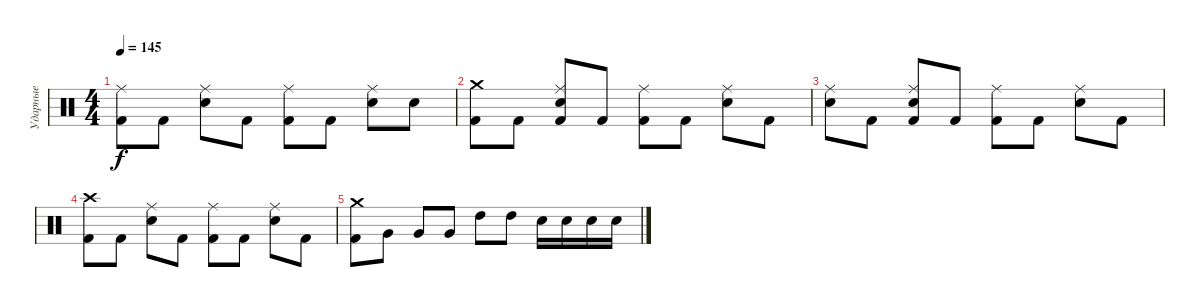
\track ("Ударные" "Ударные") {instrument percussion}
\staff {score}
\articulation defaults
\ts (4 4)
\tempo 145
\clef neutral
\ks c
("Kick (hit) 2" "Ride (middle)").8{dy f} "Kick (hit) 2".8 ("Ride (middle)" "Electric Snare (hit)").8 "Kick (hit) 2".8 ("Kick (hit) 2" "Ride (middle)").8 "Kick (hit) 2".8 ("Electric Snare (hit)" "Ride (middle)").8 "Electric Snare (hit)".8 |
("Crash medium (hit)" "Kick (hit) 2").8 "Kick (hit) 2".8 ("Ride (middle)" "Kick (hit) 2" "Electric Snare (hit)").8 "Kick (hit) 2".8 ("Kick (hit) 2" "Ride (middle)").8 "Kick (hit) 2".8 ("Ride (middle)" "Electric Snare (hit)").8 "Kick (hit) 2".8 |
("Ride (middle)" "Electric Snare (hit)").8 "Kick (hit) 2".8 ("Ride (middle)" "Electric Snare (hit)" "Kick (hit) 2").8 "Kick (hit) 2".8 ("Ride (middle)" "Kick (hit) 2").8 "Kick (hit) 2".8 ("Ride (middle)" "Electric Snare (hit)").8 "Kick (hit) 2".8 |
("Crash high (hit)" "Kick (hit) 2").8 "Kick (hit) 2".8 ("Ride (middle)" "Electric Snare (hit)").8 "Kick (hit) 2".8 ("Ride (middle)" "Kick (hit) 2").8 "Kick (hit) 2".8 ("Ride (middle)" "Electric Snare (hit)").8 "Kick (hit) 2".8 |
("Crash medium (hit)" "Kick (hit) 2").8 "Very Low Tom (hit)".8 "Very Low Tom (hit)".8 "Very Low Tom (hit)".8 "High Tom (hit)".8 "High Tom (hit)".8 "Electric Snare (hit)".16 "Electric Snare (hit)".16 "Electric Snare (hit)".16 "Electric Snare (hit)".16
